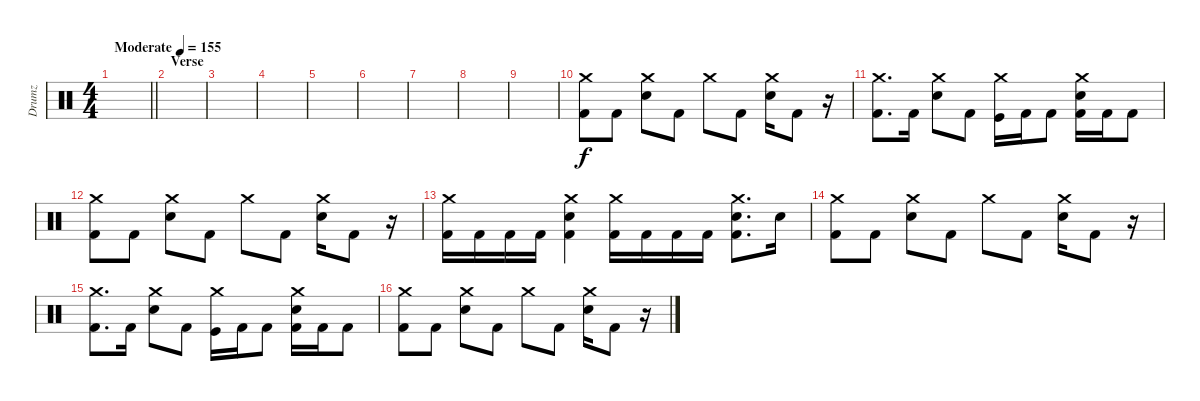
\track ("Drumz" "Drumz") {instrument percussion}
\staff {score}
\articulation defaults
\ts (4 4)
\tempo (155 "Moderate")
\clef neutral
\barLineRight lightlight
\ks c
|
\section ("" "Verse")
|
|
|
|
|
|
|
|
("Crash medium (hit)" "Kick (hit) 2").8 "Kick (hit) 2".8 ("Crash medium (hit)" "Electric Snare (hit)").8 "Kick (hit) 2".8 "Crash medium (hit)".8 "Kick (hit) 2".8 ("Crash medium (hit)" "Electric Snare (hit)").16 "Kick (hit) 2".8 r.16 |
("Crash medium (hit)" "Kick (hit) 2").8{d} "Kick (hit) 2".16 ("Crash medium (hit)" "Electric Snare (hit)").8 "Kick (hit) 2".8 ("Crash medium (hit)" "Kick (hit)").16 "Kick (hit) 2".16 "Kick (hit) 2".8 ("Kick (hit) 2" "Crash medium (hit)" "Electric Snare (hit)").16 "Kick (hit) 2".16 "Kick (hit) 2".8 |
("Crash medium (hit)" "Kick (hit) 2").8 "Kick (hit) 2".8 ("Crash medium (hit)" "Electric Snare (hit)").8 "Kick (hit) 2".8 "Crash medium (hit)".8 "Kick (hit) 2".8 ("Crash medium (hit)" "Electric Snare (hit)").16 "Kick (hit) 2".8 r.16 |
("Kick (hit) 2" "Crash medium (hit)").16 "Kick (hit) 2".16 "Kick (hit) 2".16 "Kick (hit) 2".16 ("Kick (hit) 2" "Crash medium (hit)" "Electric Snare (hit)").4 ("Kick (hit) 2" "Crash medium (hit)").16 "Kick (hit) 2".16 "Kick (hit) 2".16 "Kick (hit) 2".16 ("Kick (hit) 2" "Crash medium (hit)" "Electric Snare (hit)").8{d} "Electric Snare (hit)".16 |
("Crash medium (hit)" "Kick (hit) 2").8 "Kick (hit) 2".8 ("Crash medium (hit)" "Electric Snare (hit)").8 "Kick (hit) 2".8 "Crash medium (hit)".8 "Kick (hit) 2".8 ("Crash medium (hit)" "Electric Snare (hit)").16 "Kick (hit) 2".8 r.16 |
("Crash medium (hit)" "Kick (hit) 2").8{d} "Kick (hit) 2".16 ("Crash medium (hit)" "Electric Snare (hit)").8 "Kick (hit) 2".8 ("Crash medium (hit)" "Kick (hit)").16 "Kick (hit) 2".16 "Kick (hit) 2".8 ("Kick (hit) 2" "Crash medium (hit)" "Electric Snare (hit)").16 "Kick (hit) 2".16 "Kick (hit) 2".8 |
("Crash medium (hit)" "Kick (hit) 2").8 "Kick (hit) 2".8 ("Crash medium (hit)" "Electric Snare (hit)").8 "Kick (hit) 2".8 "Crash medium (hit)".8 "Kick (hit) 2".8 ("Crash medium (hit)" "Electric Snare (hit)").16 "Kick (hit) 2".8 r.16
